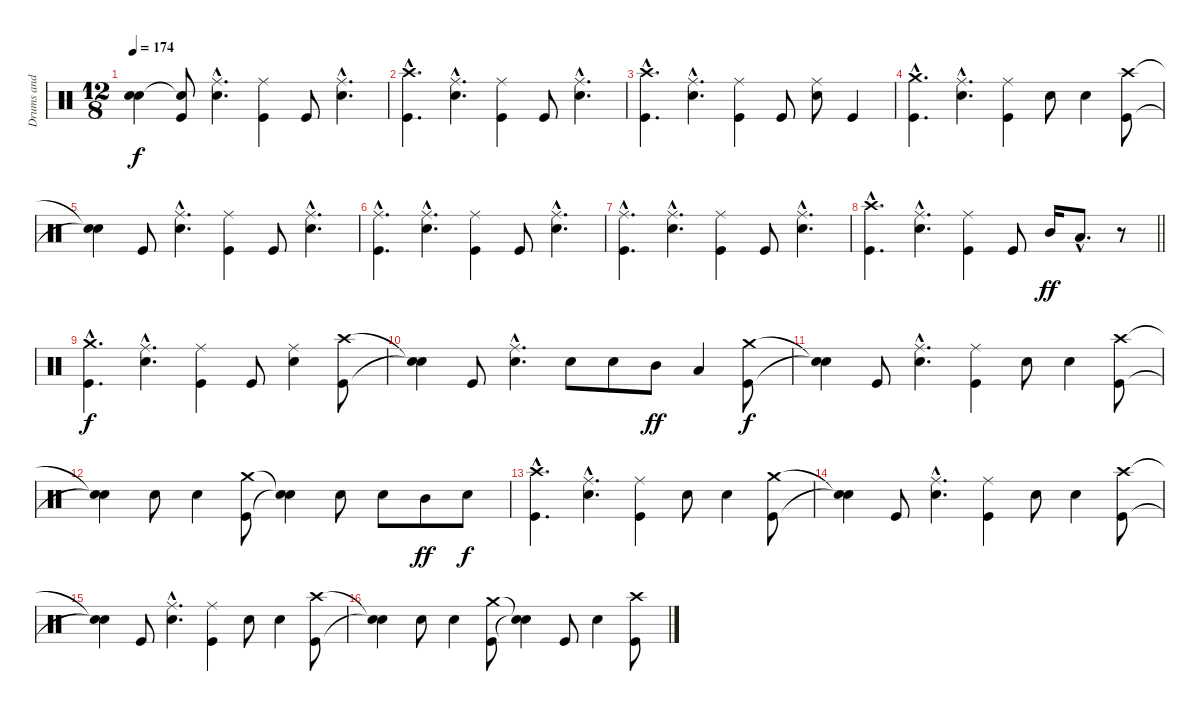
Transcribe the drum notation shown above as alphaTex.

\track ("Drums and percussion" "Drums and ") {instrument percussion}
\staff {score}
\articulation defaults
\ts (12 8)
\tempo 174
\clef neutral
\ks c
("Snare (hit)"{t} "Snare (hit)"{t}).4{dy f} ("Snare (hit)"{t} "Kick (hit)").8 ("Ride (middle)"{hac} "Snare (hit) 2"{hac}).4{d} ("Ride (middle)" "Kick (hit)").4 "Kick (hit)".8 ("Ride (middle)"{hac} "Snare (hit) 2"{hac}).4{d} |
("Crash high (hit)"{hac} "Kick (hit)"{hac}).4{d} ("Ride (middle)"{hac} "Snare (hit) 2"{hac}).4{d} ("Ride (middle)" "Kick (hit)").4 "Kick (hit)".8 ("Ride (middle)"{hac} "Snare (hit) 2"{hac}).4{d} |
("Crash high (hit)"{hac} "Kick (hit)"{hac}).4{d} ("Ride (middle)"{hac} "Snare (hit) 2"{hac}).4{d} ("Ride (middle)" "Kick (hit)").4 "Kick (hit)".8 ("Ride (middle)" "Snare (hit) 2").8 "Kick (hit)".4 |
("Crash medium (hit)"{hac} "Kick (hit)"{hac}).4{d} ("Ride (middle)"{hac} "Snare (hit) 2"{hac}).4{d} ("Ride (middle)" "Kick (hit)").4 "Snare (hit) 2".8 "Snare (hit) 2".4 ("Crash high (hit)" "Kick (hit)").8 |
("Snare (hit)"{t} "Snare (hit)"{t}).4 "Kick (hit)".8 ("Ride (middle)"{hac} "Snare (hit) 2"{hac}).4{d} ("Ride (middle)" "Kick (hit)").4 "Kick (hit)".8 ("Ride (middle)"{hac} "Snare (hit) 2"{hac}).4{d} |
("Ride (middle)"{hac} "Kick (hit)"{hac}).4{d} ("Ride (middle)"{hac} "Snare (hit) 2"{hac}).4{d} ("Ride (middle)" "Kick (hit)").4 "Kick (hit)".8 ("Ride (middle)"{hac} "Snare (hit) 2"{hac}).4{d} |
("Ride (middle)"{hac} "Kick (hit)"{hac}).4{d} ("Ride (middle)"{hac} "Snare (hit) 2"{hac}).4{d} ("Ride (middle)" "Kick (hit)").4 "Kick (hit)".8 ("Ride (middle)"{hac} "Snare (hit) 2"{hac}).4{d} |
\barLineRight lightlight
("Crash high (hit)"{hac} "Kick (hit)"{hac}).4{d} ("Ride (middle)"{hac} "Snare (hit) 2"{hac}).4{d} ("Ride (middle)" "Kick (hit)").4 "Kick (hit)".8 "Mid Tom (hit)".16{dy ff} "Low Tom (hit)"{hac}.8{d} r.8 |
("Crash medium (hit)"{hac} "Kick (hit)"{hac}).4{d dy f} ("Ride (middle)"{hac} "Snare (hit) 2"{hac}).4{d} ("Ride (middle)" "Kick (hit)").4 "Kick (hit)".8 ("Ride (middle)" "Snare (hit) 2").4 ("Crash high (hit)" "Kick (hit)").8 |
("Snare (hit)"{t} "Snare (hit)"{t}).4 "Kick (hit)".8 ("Ride (middle)"{hac} "Snare (hit) 2"{hac}).4{d} "Snare (hit) 2".8 "Snare (hit) 2".8 "Mid Tom (hit)".8{dy ff} "Low Tom (hit)".4 ("Crash medium (hit)" "Kick (hit)").8{dy f} |
("Snare (hit)"{t} "Snare (hit)"{t}).4 "Kick (hit)".8 ("Ride (middle)"{hac} "Snare (hit) 2"{hac}).4{d} ("Ride (middle)" "Kick (hit)").4 "Snare (hit) 2".8 "Snare (hit) 2".4 ("Crash high (hit)" "Kick (hit)").8 |
("Snare (hit)"{t} "Snare (hit)"{t}).4 "Snare (hit) 2".8 "Snare (hit) 2".4 ("Crash medium (hit)" "Kick (hit)").8 ("Snare (hit)"{t} "Snare (hit)"{t}).4 "Snare (hit) 2".8 "Snare (hit) 2".8 "Mid Tom (hit)".8{dy ff} "Snare (hit) 2".8{dy f} |
("Crash high (hit)"{hac} "Kick (hit)"{hac}).4{d} ("Ride (middle)"{hac} "Snare (hit) 2"{hac}).4{d} ("Ride (middle)" "Kick (hit)").4 "Snare (hit) 2".8 "Snare (hit) 2".4 ("Crash medium (hit)" "Kick (hit)").8 |
("Snare (hit)"{t} "Snare (hit)"{t}).4 "Kick (hit)".8 ("Ride (middle)"{hac} "Snare (hit) 2"{hac}).4{d} ("Ride (middle)" "Kick (hit)").4 "Snare (hit) 2".8 "Snare (hit) 2".4 ("Crash high (hit)" "Kick (hit)").8 |
("Snare (hit)"{t} "Snare (hit)"{t}).4 "Kick (hit)".8 ("Ride (middle)"{hac} "Snare (hit) 2"{hac}).4{d} ("Ride (middle)" "Kick (hit)").4 "Snare (hit) 2".8 "Snare (hit) 2".4 ("Crash high (hit)" "Kick (hit)").8 |
("Snare (hit)"{t} "Snare (hit)"{t}).4 "Snare (hit) 2".8 "Snare (hit) 2".4 ("Crash medium (hit)" "Kick (hit)").8 ("Snare (hit)"{t} "Snare (hit)"{t}).4 "Kick (hit)".8 "Snare (hit) 2".4 ("Crash high (hit)" "Kick (hit)").8
